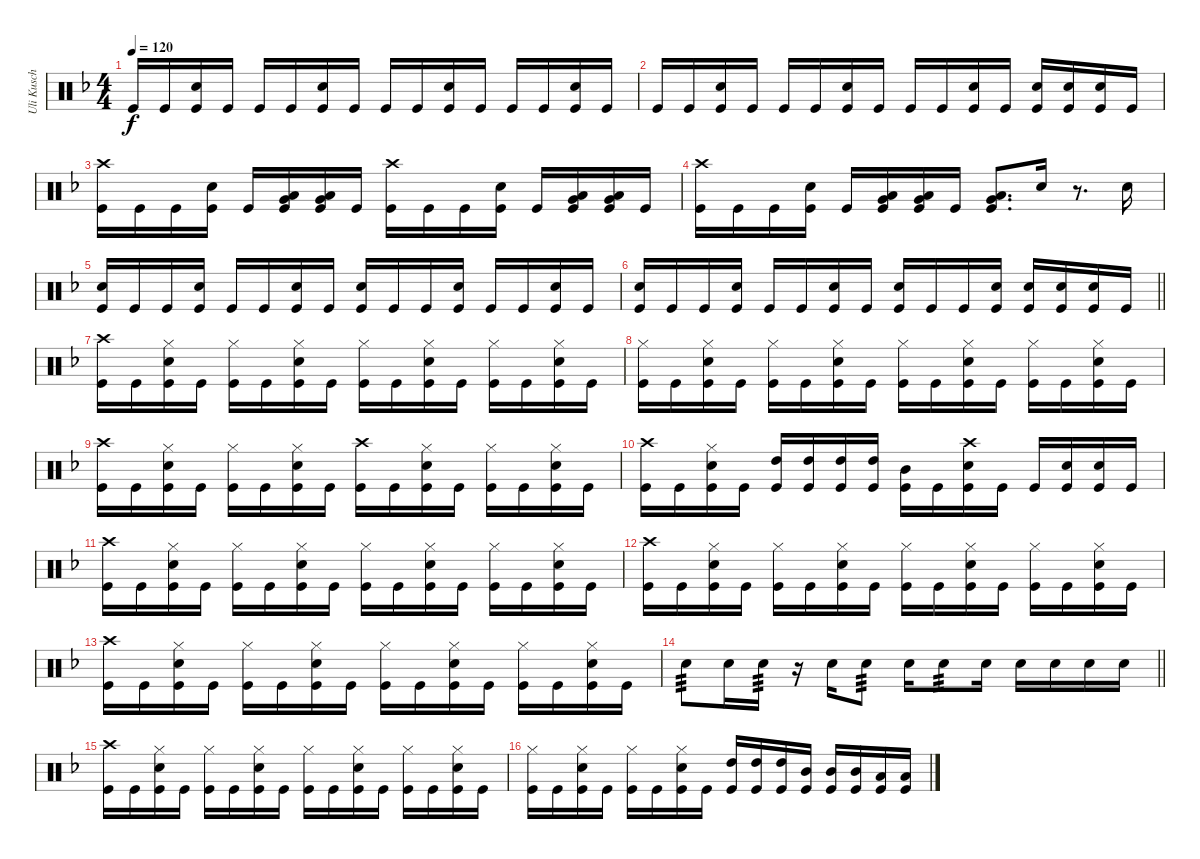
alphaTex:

\track ("Uli Kusch" "Uli Kusch") {instrument percussion}
\staff {score}
\articulation defaults
\ts (4 4)
\tempo 120
\clef neutral
\ks f "Kick (hit)".16{dy f} "Kick (hit)".16
("Snare (hit) 2" "Kick (hit)").16 "Kick (hit)".16 "Kick (hit)".16 "Kick (hit)".16 ("Snare (hit) 2" "Kick (hit)").16 "Kick (hit)".16 "Kick (hit)".16 "Kick (hit)".16 ("Snare (hit) 2" "Kick (hit)").16 "Kick (hit)".16 "Kick (hit)".16 "Kick (hit)".16 ("Snare (hit) 2" "Kick (hit)").16 "Kick (hit)".16 |
"Kick (hit)".16 "Kick (hit)".16 ("Snare (hit) 2" "Kick (hit)").16 "Kick (hit)".16 "Kick (hit)".16 "Kick (hit)".16 ("Snare (hit) 2" "Kick (hit)").16 "Kick (hit)".16 "Kick (hit)".16 "Kick (hit)".16 ("Snare (hit) 2" "Kick (hit)").16 "Kick (hit)".16 ("Snare (hit) 2" "Kick (hit)").16 ("Snare (hit) 2" "Kick (hit)").16 ("Snare (hit) 2" "Kick (hit)").16 "Kick (hit)".16 |
("Crash high (hit)" "Kick (hit)").16 "Kick (hit)".16 "Kick (hit)".16 ("Snare (hit) 2" "Kick (hit)").16 "Kick (hit)".16 ("Low Tom (hit)" "Very Low Tom (hit)" "Kick (hit)").16 ("Low Tom (hit)" "Very Low Tom (hit)" "Kick (hit)").16 "Kick (hit)".16 ("Crash high (hit)" "Kick (hit)").16 "Kick (hit)".16 "Kick (hit)".16 ("Snare (hit) 2" "Kick (hit)").16 "Kick (hit)".16 ("Low Tom (hit)" "Very Low Tom (hit)" "Kick (hit)").16 ("Low Tom (hit)" "Very Low Tom (hit)" "Kick (hit)").16 "Kick (hit)".16 |
("Crash high (hit)" "Kick (hit)").16 "Kick (hit)".16 "Kick (hit)".16 ("Snare (hit) 2" "Kick (hit)").16 "Kick (hit)".16 ("Low Tom (hit)" "Very Low Tom (hit)" "Kick (hit)").16 ("Low Tom (hit)" "Very Low Tom (hit)" "Kick (hit)").16 "Kick (hit)".16 ("Low Tom (hit)" "Very Low Tom (hit)" "Kick (hit)").8{d} "Snare (hit) 2".16 r.8{d} "Snare (hit) 2".16 |
("Snare (hit) 2" "Kick (hit)").16 "Kick (hit)".16 "Kick (hit)".16 ("Snare (hit) 2" "Kick (hit)").16 "Kick (hit)".16 "Kick (hit)".16 ("Snare (hit) 2" "Kick (hit)").16 "Kick (hit)".16 ("Snare (hit) 2" "Kick (hit)").16 "Kick (hit)".16 "Kick (hit)".16 ("Snare (hit) 2" "Kick (hit)").16 "Kick (hit)".16 "Kick (hit)".16 ("Snare (hit) 2" "Kick (hit)").16 "Kick (hit)".16 |
\barLineRight lightlight
("Snare (hit) 2" "Kick (hit)").16 "Kick (hit)".16 "Kick (hit)".16 ("Snare (hit) 2" "Kick (hit)").16 "Kick (hit)".16 "Kick (hit)".16 ("Snare (hit) 2" "Kick (hit)").16 "Kick (hit)".16 ("Snare (hit) 2" "Kick (hit)").16 "Kick (hit)".16 "Kick (hit)".16 ("Snare (hit) 2" "Kick (hit)").16 ("Snare (hit) 2" "Kick (hit)").16 ("Snare (hit) 2" "Kick (hit)").16 ("Snare (hit) 2" "Kick (hit)").16 "Kick (hit)".16 |
("Crash high (hit)" "Kick (hit)").16 "Kick (hit)".16 ("Hi-Hat (closed)" "Snare (hit) 2" "Kick (hit)").16 "Kick (hit)".16 ("Hi-Hat (closed)" "Kick (hit)").16 "Kick (hit)".16 ("Hi-Hat (closed)" "Snare (hit) 2" "Kick (hit)").16 "Kick (hit)".16 ("Hi-Hat (closed)" "Kick (hit)").16 "Kick (hit)".16 ("Hi-Hat (closed)" "Snare (hit) 2" "Kick (hit)").16 "Kick (hit)".16 ("Hi-Hat (closed)" "Kick (hit)").16 "Kick (hit)".16 ("Hi-Hat (closed)" "Snare (hit) 2" "Kick (hit)").16 "Kick (hit)".16 |
("Hi-Hat (closed)" "Kick (hit)").16 "Kick (hit)".16 ("Hi-Hat (closed)" "Snare (hit) 2" "Kick (hit)").16 "Kick (hit)".16 ("Hi-Hat (closed)" "Kick (hit)").16 "Kick (hit)".16 ("Hi-Hat (closed)" "Snare (hit) 2" "Kick (hit)").16 "Kick (hit)".16 ("Hi-Hat (closed)" "Kick (hit)").16 "Kick (hit)".16 ("Hi-Hat (closed)" "Snare (hit) 2" "Kick (hit)").16 "Kick (hit)".16 ("Hi-Hat (closed)" "Kick (hit)").16 "Kick (hit)".16 ("Hi-Hat (closed)" "Snare (hit) 2" "Kick (hit)").16 "Kick (hit)".16 |
("Crash high (hit)" "Kick (hit)").16 "Kick (hit)".16 ("Hi-Hat (closed)" "Snare (hit) 2" "Kick (hit)").16 "Kick (hit)".16 ("Hi-Hat (closed)" "Kick (hit)").16 "Kick (hit)".16 ("Hi-Hat (closed)" "Snare (hit) 2" "Kick (hit)").16 "Kick (hit)".16 ("Crash high (hit)" "Kick (hit)").16 "Kick (hit)".16 ("Hi-Hat (closed)" "Snare (hit) 2" "Kick (hit)").16 "Kick (hit)".16 ("Hi-Hat (closed)" "Kick (hit)").16 "Kick (hit)".16 ("Hi-Hat (closed)" "Snare (hit) 2" "Kick (hit)").16 "Kick (hit)".16 |
("Crash high (hit)" "Kick (hit)").16 "Kick (hit)".16 ("Hi-Hat (closed)" "Snare (hit) 2" "Kick (hit)").16 "Kick (hit)".16 ("High Tom (hit)" "Kick (hit)").16 ("High Tom (hit)" "Kick (hit)").16 ("High Tom (hit)" "Kick (hit)").16 ("High Tom (hit)" "Kick (hit)").16 ("Mid Tom (hit)" "Kick (hit)").16 "Kick (hit)".16 ("Crash high (hit)" "Snare (hit) 2" "Kick (hit)").16 "Kick (hit)".16 "Kick (hit)".16 ("Snare (hit) 2" "Kick (hit)").16 ("Snare (hit) 2" "Kick (hit)").16 "Kick (hit)".16 |
("Crash high (hit)" "Kick (hit)").16 "Kick (hit)".16 ("Hi-Hat (closed)" "Snare (hit) 2" "Kick (hit)").16 "Kick (hit)".16 ("Hi-Hat (closed)" "Kick (hit)").16 "Kick (hit)".16 ("Hi-Hat (closed)" "Snare (hit) 2" "Kick (hit)").16 "Kick (hit)".16 ("Hi-Hat (closed)" "Kick (hit)").16 "Kick (hit)".16 ("Hi-Hat (closed)" "Snare (hit) 2" "Kick (hit)").16 "Kick (hit)".16 ("Hi-Hat (closed)" "Kick (hit)").16 "Kick (hit)".16 ("Hi-Hat (closed)" "Snare (hit) 2" "Kick (hit)").16 "Kick (hit)".16 |
("Crash high (hit)" "Kick (hit)").16 "Kick (hit)".16 ("Hi-Hat (closed)" "Snare (hit) 2" "Kick (hit)").16 "Kick (hit)".16 ("Hi-Hat (closed)" "Kick (hit)").16 "Kick (hit)".16 ("Hi-Hat (closed)" "Snare (hit) 2" "Kick (hit)").16 "Kick (hit)".16 ("Hi-Hat (closed)" "Kick (hit)").16 "Kick (hit)".16 ("Hi-Hat (closed)" "Snare (hit) 2" "Kick (hit)").16 "Kick (hit)".16 ("Hi-Hat (closed)" "Kick (hit)").16 "Kick (hit)".16 ("Hi-Hat (closed)" "Snare (hit) 2" "Kick (hit)").16 "Kick (hit)".16 |
("Crash high (hit)" "Kick (hit)").16 "Kick (hit)".16 ("Hi-Hat (closed)" "Snare (hit) 2" "Kick (hit)").16 "Kick (hit)".16 ("Hi-Hat (closed)" "Kick (hit)").16 "Kick (hit)".16 ("Hi-Hat (closed)" "Snare (hit) 2" "Kick (hit)").16 "Kick (hit)".16 ("Hi-Hat (closed)" "Kick (hit)").16 "Kick (hit)".16 ("Hi-Hat (closed)" "Snare (hit) 2" "Kick (hit)").16 "Kick (hit)".16 ("Hi-Hat (closed)" "Kick (hit)").16 "Kick (hit)".16 ("Hi-Hat (closed)" "Snare (hit) 2" "Kick (hit)").16 "Kick (hit)".16 |
\barLineRight lightlight "Snare (hit) 2".8{tp 3} "Snare (hit) 2".16 "Snare (hit) 2".16{tp 3}
r.16 "Snare (hit) 2".16 "Snare (hit) 2".8{tp 3} "Snare (hit) 2".16 "Snare (hit) 2".8{tp 3} "Snare (hit) 2".16 "Snare (hit) 2".16 "Snare (hit) 2".16 "Snare (hit) 2".16 "Snare (hit) 2".16 |
\ks dminor
("Crash high (hit)" "Kick (hit)").16 "Kick (hit)".16 ("Hi-Hat (closed)" "Snare (hit) 2" "Kick (hit)").16 "Kick (hit)".16 ("Hi-Hat (closed)" "Kick (hit)").16 "Kick (hit)".16 ("Hi-Hat (closed)" "Snare (hit) 2" "Kick (hit)").16 "Kick (hit)".16 ("Hi-Hat (closed)" "Kick (hit)").16 "Kick (hit)".16 ("Hi-Hat (closed)" "Snare (hit) 2" "Kick (hit)").16 "Kick (hit)".16 ("Hi-Hat (closed)" "Kick (hit)").16 "Kick (hit)".16 ("Hi-Hat (closed)" "Snare (hit) 2" "Kick (hit)").16 "Kick (hit)".16 |
("Hi-Hat (closed)" "Kick (hit)").16 "Kick (hit)".16 ("Hi-Hat (closed)" "Snare (hit) 2" "Kick (hit)").16 "Kick (hit)".16 ("Hi-Hat (closed)" "Kick (hit)").16 "Kick (hit)".16 ("Hi-Hat (closed)" "Snare (hit) 2" "Kick (hit)").16 "Kick (hit)".16 ("High Tom (hit)" "Kick (hit)").16 ("High Tom (hit)" "Kick (hit)").16 ("High Tom (hit)" "Kick (hit)").16 ("Mid Tom (hit)" "Kick (hit)").16 ("Mid Tom (hit)" "Kick (hit)").16 ("Mid Tom (hit)" "Kick (hit)").16 ("Low Tom (hit)" "Kick (hit)").16 ("Low Tom (hit)" "Kick (hit)").16
